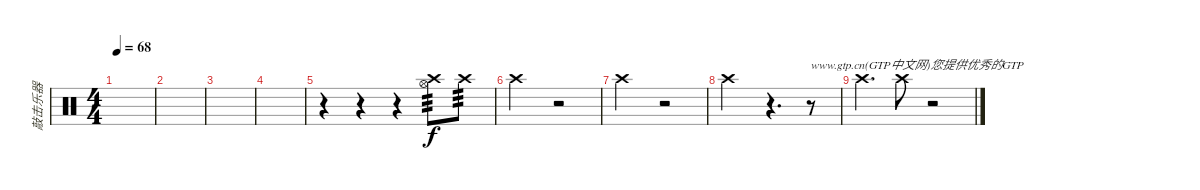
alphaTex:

\track ("敲击乐器" "敲击乐器") {instrument percussion}
\staff {score}
\articulation defaults
\ts (4 4)
\tempo 68
\clef neutral
\ks c
|
|
|
|
r.4 r.4 r.4 ("Crash high (hit)" "Hi-Hat (open)").8{tp 3} "Crash high (hit)".8{tp 3} |
"Crash high (hit)".2 r.2 |
"Crash high (hit)".2 r.2 |
"Crash high (hit)".2 r.4{d} r.8{txt "www.gtp.cn(GTP中文网)您提供优秀的GTP"} |
"Crash high (hit)".4{d} "Crash high (hit)".8 r.2
